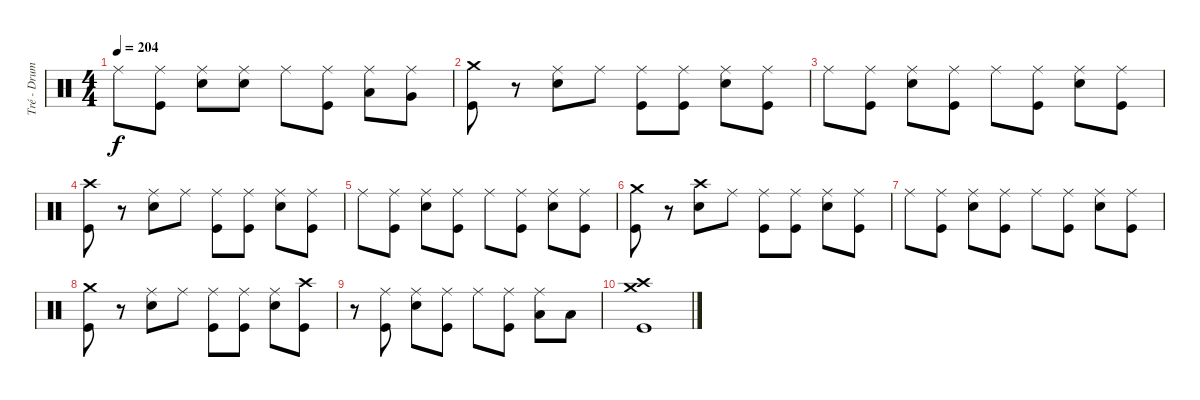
\track ("Tré - Drums" "Tré - Drum") {instrument percussion}
\staff {score}
\articulation defaults
\ts (4 4)
\tempo 204
\clef neutral
\ks c "Ride (middle)".8{dy f}
("Ride (middle)" "Kick (hit)").8 ("Ride (middle)" "Electric Snare (hit)").8 ("Ride (middle)" "Electric Snare (hit)").8 "Ride (middle)".8 ("Ride (middle)" "Kick (hit)").8 ("Ride (middle)" "Low Tom (hit)").8 ("Ride (middle)" "Very Low Tom (hit)").8 |
("Crash medium (hit)" "Kick (hit)").8 r.8 ("Ride (middle)" "Electric Snare (hit)").8 "Ride (middle)".8 ("Ride (middle)" "Kick (hit)").8 ("Ride (middle)" "Kick (hit)").8 ("Ride (middle)" "Electric Snare (hit)").8 ("Ride (middle)" "Kick (hit)").8 |
"Ride (middle)".8 ("Ride (middle)" "Kick (hit)").8 ("Ride (middle)" "Electric Snare (hit)").8 ("Ride (middle)" "Kick (hit)").8 "Ride (middle)".8 ("Ride (middle)" "Kick (hit)").8 ("Ride (middle)" "Electric Snare (hit)").8 ("Ride (middle)" "Kick (hit)").8 |
("Crash high (hit)" "Kick (hit)").8 r.8 ("Ride (middle)" "Electric Snare (hit)").8 "Ride (middle)".8 ("Ride (middle)" "Kick (hit)").8 ("Ride (middle)" "Kick (hit)").8 ("Ride (middle)" "Electric Snare (hit)").8 ("Ride (middle)" "Kick (hit)").8 |
"Ride (middle)".8 ("Ride (middle)" "Kick (hit)").8 ("Ride (middle)" "Electric Snare (hit)").8 ("Ride (middle)" "Kick (hit)").8 "Ride (middle)".8 ("Ride (middle)" "Kick (hit)").8 ("Ride (middle)" "Electric Snare (hit)").8 ("Ride (middle)" "Kick (hit)").8 |
("Crash medium (hit)" "Kick (hit)").8 r.8 ("Crash high (hit)" "Electric Snare (hit)").8 "Ride (middle)".8 ("Ride (middle)" "Kick (hit)").8 ("Ride (middle)" "Kick (hit)").8 ("Ride (middle)" "Electric Snare (hit)").8 ("Ride (middle)" "Kick (hit)").8 |
"Ride (middle)".8 ("Ride (middle)" "Kick (hit)").8 ("Ride (middle)" "Electric Snare (hit)").8 ("Ride (middle)" "Kick (hit)").8 "Ride (middle)".8 ("Ride (middle)" "Kick (hit)").8 ("Ride (middle)" "Electric Snare (hit)").8 ("Ride (middle)" "Kick (hit)").8 |
("Crash medium (hit)" "Kick (hit)").8 r.8 ("Ride (middle)" "Electric Snare (hit)").8 "Ride (middle)".8 ("Ride (middle)" "Kick (hit)").8 ("Ride (middle)" "Kick (hit)").8 ("Ride (middle)" "Electric Snare (hit)").8 ("Crash high (hit)" "Kick (hit)").8 |
r.8 ("Ride (middle)" "Kick (hit)").8 ("Ride (middle)" "Electric Snare (hit)").8 ("Ride (middle)" "Kick (hit)").8 "Ride (middle)".8 ("Ride (middle)" "Kick (hit)").8 ("Ride (middle)" "Low Floor Tom (hit)").8 "Low Floor Tom (hit)".8 |
("Crash medium (hit)" "Crash high (hit)" "Kick (hit)").1
